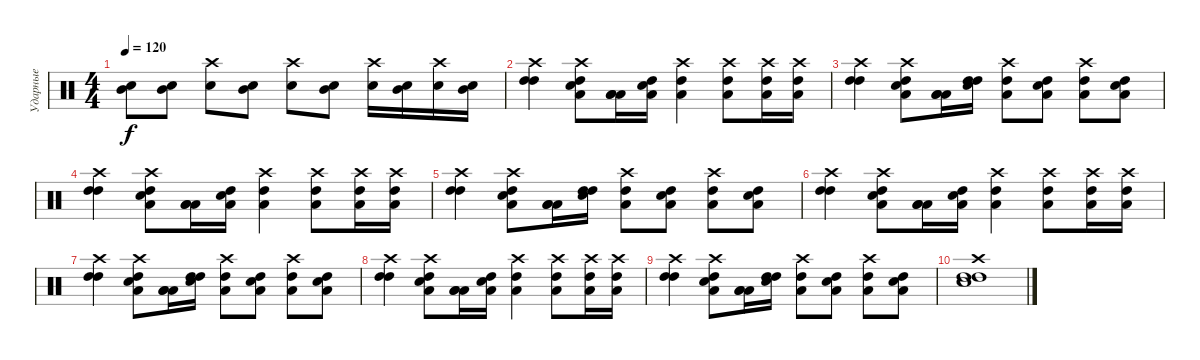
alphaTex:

\track ("Ударные" "Ударные") {instrument percussion}
\staff {score}
\articulation defaults
\ts (4 4)
\tempo 120
\clef neutral
\ks c
("Electric Snare (hit)" "Mid Tom (hit)").8{dy f} ("Electric Snare (hit)" "Mid Tom (hit)").8 ("Electric Snare (hit)" "Crash high (hit)").8 ("Electric Snare (hit)" "Mid Tom (hit)").8 ("Electric Snare (hit)" "Crash high (hit)").8 ("Electric Snare (hit)" "Mid Tom (hit)").8 ("Electric Snare (hit)" "Crash high (hit)").16 ("Electric Snare (hit)" "Mid Tom (hit)").16 ("Electric Snare (hit)" "Crash high (hit)").16 ("Electric Snare (hit)" "Mid Tom (hit)").16 |
("High Tom (hit)" "High Tom (hit)" "Crash high (hit)").4 ("High Tom (hit)" "Low Tom (hit)" "Electric Snare (hit)" "Crash high (hit)").8 ("Low Tom (hit)" "Low Tom (hit)" "Low Tom (hit)").16 ("High Tom (hit)" "Low Tom (hit)" "Electric Snare (hit)").16 ("High Tom (hit)" "Low Tom (hit)" "Crash high (hit)").4 ("High Tom (hit)" "Low Tom (hit)" "Crash high (hit)").8 ("High Tom (hit)" "Low Tom (hit)" "Crash high (hit)").16 ("High Tom (hit)" "Low Tom (hit)" "Crash high (hit)").16 |
("High Tom (hit)" "High Tom (hit)" "Crash high (hit)").4 ("High Tom (hit)" "Low Tom (hit)" "Electric Snare (hit)" "Crash high (hit)").8 ("Low Tom (hit)" "Low Tom (hit)" "Low Tom (hit)").16 ("High Tom (hit)" "High Tom (hit)" "Snare (hit) 2").16 ("High Tom (hit)" "Low Tom (hit)" "Crash high (hit)").8 ("High Tom (hit)" "Low Tom (hit)" "Electric Snare (hit)").8 ("High Tom (hit)" "Low Tom (hit)" "Crash high (hit)").8 ("High Tom (hit)" "Low Tom (hit)" "Electric Snare (hit)").8 |
("High Tom (hit)" "High Tom (hit)" "Crash high (hit)").4 ("High Tom (hit)" "Low Tom (hit)" "Electric Snare (hit)" "Crash high (hit)").8 ("Low Tom (hit)" "Low Tom (hit)" "Low Tom (hit)").16 ("High Tom (hit)" "Low Tom (hit)" "Electric Snare (hit)").16 ("High Tom (hit)" "Low Tom (hit)" "Crash high (hit)").4 ("High Tom (hit)" "Low Tom (hit)" "Crash high (hit)").8 ("High Tom (hit)" "Low Tom (hit)" "Crash high (hit)").16 ("High Tom (hit)" "Low Tom (hit)" "Crash high (hit)").16 |
("High Tom (hit)" "High Tom (hit)" "Crash high (hit)").4 ("High Tom (hit)" "Low Tom (hit)" "Electric Snare (hit)" "Crash high (hit)").8 ("Low Tom (hit)" "Low Tom (hit)" "Low Tom (hit)").16 ("High Tom (hit)" "High Tom (hit)" "Snare (hit) 2").16 ("High Tom (hit)" "Low Tom (hit)" "Crash high (hit)").8 ("High Tom (hit)" "Low Tom (hit)" "Electric Snare (hit)").8 ("High Tom (hit)" "Low Tom (hit)" "Crash high (hit)").8 ("High Tom (hit)" "Low Tom (hit)" "Electric Snare (hit)").8 |
("High Tom (hit)" "High Tom (hit)" "Crash high (hit)").4 ("High Tom (hit)" "Low Tom (hit)" "Electric Snare (hit)" "Crash high (hit)").8 ("Low Tom (hit)" "Low Tom (hit)" "Low Tom (hit)").16 ("High Tom (hit)" "Low Tom (hit)" "Electric Snare (hit)").16 ("High Tom (hit)" "Low Tom (hit)" "Crash high (hit)").4 ("High Tom (hit)" "Low Tom (hit)" "Crash high (hit)").8 ("High Tom (hit)" "Low Tom (hit)" "Crash high (hit)").16 ("High Tom (hit)" "Low Tom (hit)" "Crash high (hit)").16 |
("High Tom (hit)" "High Tom (hit)" "Crash high (hit)").4 ("High Tom (hit)" "Low Tom (hit)" "Electric Snare (hit)" "Crash high (hit)").8 ("Low Tom (hit)" "Low Tom (hit)" "Low Tom (hit)").16 ("High Tom (hit)" "High Tom (hit)" "Snare (hit) 2").16 ("High Tom (hit)" "Low Tom (hit)" "Crash high (hit)").8 ("High Tom (hit)" "Low Tom (hit)" "Electric Snare (hit)").8 ("High Tom (hit)" "Low Tom (hit)" "Crash high (hit)").8 ("High Tom (hit)" "Low Tom (hit)" "Electric Snare (hit)").8 |
("High Tom (hit)" "High Tom (hit)" "Crash high (hit)").4 ("High Tom (hit)" "Low Tom (hit)" "Electric Snare (hit)" "Crash high (hit)").8 ("Low Tom (hit)" "Low Tom (hit)" "Low Tom (hit)").16 ("High Tom (hit)" "Low Tom (hit)" "Electric Snare (hit)").16 ("High Tom (hit)" "Low Tom (hit)" "Crash high (hit)").4 ("High Tom (hit)" "Low Tom (hit)" "Crash high (hit)").8 ("High Tom (hit)" "Low Tom (hit)" "Crash high (hit)").16 ("High Tom (hit)" "Low Tom (hit)" "Crash high (hit)").16 |
("High Tom (hit)" "High Tom (hit)" "Crash high (hit)").4 ("High Tom (hit)" "Low Tom (hit)" "Electric Snare (hit)" "Crash high (hit)").8 ("Low Tom (hit)" "Low Tom (hit)" "Low Tom (hit)").16 ("High Tom (hit)" "High Tom (hit)" "Snare (hit) 2").16 ("High Tom (hit)" "Low Tom (hit)" "Crash high (hit)").8 ("High Tom (hit)" "Low Tom (hit)" "Electric Snare (hit)").8 ("High Tom (hit)" "Low Tom (hit)" "Crash high (hit)").8 ("High Tom (hit)" "Low Tom (hit)" "Electric Snare (hit)").8 |
("High Tom (hit)" "High Tom (hit)" "Electric Snare (hit)" "Crash high (hit)").1
